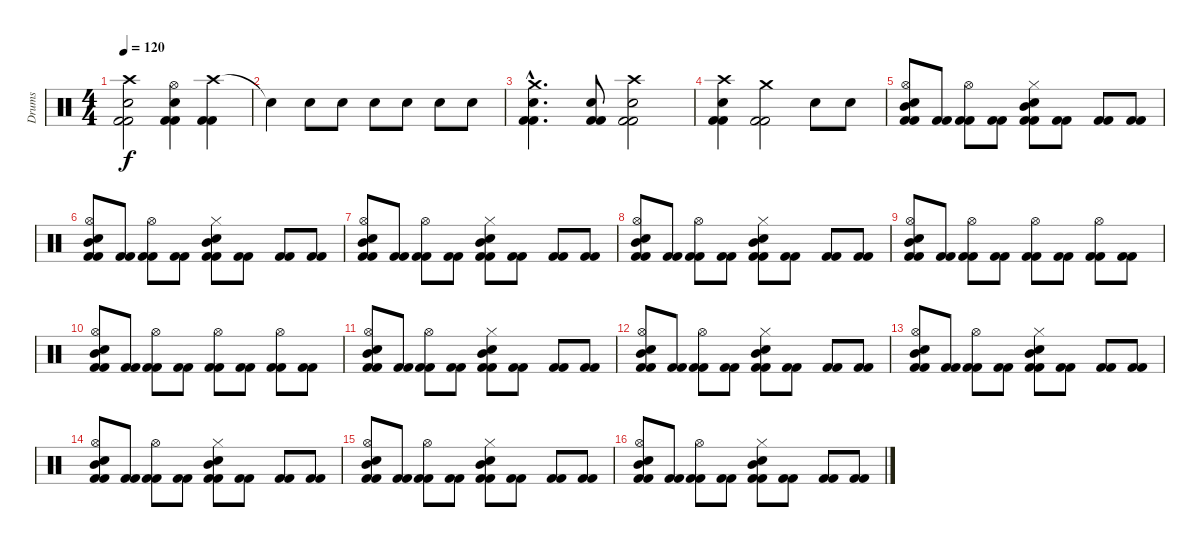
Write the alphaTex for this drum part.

\track ("Drums" "Drums") {instrument percussion}
\staff {score}
\articulation defaults
\ts (4 4)
\tempo 120
\clef neutral
\ks c
("Crash high (hit)" "Snare (hit) 2" "Kick (hit) 2" "Kick (hit) 2").2{dy f} ("Hi-Hat (open)" "Snare (hit) 2" "Kick (hit) 2" "Kick (hit) 2").4 ("Crash high (hit)" "Kick (hit) 2" "Kick (hit) 2").4 |
"Snare (hit)"{t}.4 "Snare (hit) 2".8 "Snare (hit) 2".8 "Snare (hit) 2".8 "Snare (hit) 2".8 "Snare (hit) 2".8 "Snare (hit) 2".8 |
("Crash medium (hit)"{hac} "Snare (hit) 2"{hac} "Kick (hit) 2"{hac} "Kick (hit) 2"{hac}).4{d} ("Electric Snare (hit)" "Kick (hit) 2" "Kick (hit) 2").8 ("Crash high (hit)" "Snare (hit) 2" "Kick (hit) 2" "Kick (hit) 2").2 |
("Crash high (hit)" "Snare (hit) 2" "Kick (hit) 2" "Kick (hit) 2").4 ("Crash medium (hit)" "Kick (hit) 2" "Kick (hit) 2").2 "Snare (hit) 2".8 "Snare (hit) 2".8 |
("Hi-Hat (open)" "Mid Tom (hit)" "Snare (hit) 2" "Kick (hit) 2" "Kick (hit) 2").8 ("Kick (hit) 2" "Kick (hit) 2").8 ("Hi-Hat (open)" "Kick (hit) 2" "Kick (hit) 2").8 ("Kick (hit) 2" "Kick (hit) 2").8 ("Hi-Hat (closed)" "Mid Tom (hit)" "Snare (hit) 2" "Kick (hit) 2" "Kick (hit) 2").8 ("Kick (hit) 2" "Kick (hit) 2").8 ("Kick (hit) 2" "Kick (hit) 2").8 ("Kick (hit) 2" "Kick (hit) 2").8 |
("Hi-Hat (open)" "Mid Tom (hit)" "Snare (hit) 2" "Kick (hit) 2" "Kick (hit) 2").8 ("Kick (hit) 2" "Kick (hit) 2").8 ("Hi-Hat (open)" "Kick (hit) 2" "Kick (hit) 2").8 ("Kick (hit) 2" "Kick (hit) 2").8 ("Hi-Hat (closed)" "Mid Tom (hit)" "Snare (hit) 2" "Kick (hit) 2" "Kick (hit) 2").8 ("Kick (hit) 2" "Kick (hit) 2").8 ("Kick (hit) 2" "Kick (hit) 2").8 ("Kick (hit) 2" "Kick (hit) 2").8 |
("Hi-Hat (open)" "Mid Tom (hit)" "Snare (hit) 2" "Kick (hit) 2" "Kick (hit) 2").8 ("Kick (hit) 2" "Kick (hit) 2").8 ("Hi-Hat (open)" "Kick (hit) 2" "Kick (hit) 2").8 ("Kick (hit) 2" "Kick (hit) 2").8 ("Hi-Hat (closed)" "Mid Tom (hit)" "Snare (hit) 2" "Kick (hit) 2" "Kick (hit) 2").8 ("Kick (hit) 2" "Kick (hit) 2").8 ("Kick (hit) 2" "Kick (hit) 2").8 ("Kick (hit) 2" "Kick (hit) 2").8 |
("Hi-Hat (open)" "Mid Tom (hit)" "Snare (hit) 2" "Kick (hit) 2" "Kick (hit) 2").8 ("Kick (hit) 2" "Kick (hit) 2").8 ("Hi-Hat (open)" "Kick (hit) 2" "Kick (hit) 2").8 ("Kick (hit) 2" "Kick (hit) 2").8 ("Hi-Hat (closed)" "Mid Tom (hit)" "Snare (hit) 2" "Kick (hit) 2" "Kick (hit) 2").8 ("Kick (hit) 2" "Kick (hit) 2").8 ("Kick (hit) 2" "Kick (hit) 2").8 ("Kick (hit) 2" "Kick (hit) 2").8 |
("Hi-Hat (open)" "Mid Tom (hit)" "Snare (hit) 2" "Kick (hit) 2" "Kick (hit) 2").8 ("Kick (hit) 2" "Kick (hit) 2").8 ("Hi-Hat (open)" "Kick (hit) 2" "Kick (hit) 2").8 ("Kick (hit) 2" "Kick (hit) 2").8 ("Hi-Hat (open)" "Kick (hit) 2" "Kick (hit) 2").8 ("Kick (hit) 2" "Kick (hit) 2").8 ("Hi-Hat (open)" "Kick (hit) 2" "Kick (hit) 2").8 ("Kick (hit) 2" "Kick (hit) 2").8 |
("Hi-Hat (open)" "Mid Tom (hit)" "Snare (hit) 2" "Kick (hit) 2" "Kick (hit) 2").8 ("Kick (hit) 2" "Kick (hit) 2").8 ("Hi-Hat (open)" "Kick (hit) 2" "Kick (hit) 2").8 ("Kick (hit) 2" "Kick (hit) 2").8 ("Hi-Hat (open)" "Kick (hit) 2" "Kick (hit) 2").8 ("Kick (hit) 2" "Kick (hit) 2").8 ("Hi-Hat (open)" "Kick (hit) 2" "Kick (hit) 2").8 ("Kick (hit) 2" "Kick (hit) 2").8 |
("Hi-Hat (open)" "Mid Tom (hit)" "Snare (hit) 2" "Kick (hit) 2" "Kick (hit) 2").8 ("Kick (hit) 2" "Kick (hit) 2").8 ("Hi-Hat (open)" "Kick (hit) 2" "Kick (hit) 2").8 ("Kick (hit) 2" "Kick (hit) 2").8 ("Hi-Hat (closed)" "Mid Tom (hit)" "Snare (hit) 2" "Kick (hit) 2" "Kick (hit) 2").8 ("Kick (hit) 2" "Kick (hit) 2").8 ("Kick (hit) 2" "Kick (hit) 2").8 ("Kick (hit) 2" "Kick (hit) 2").8 |
("Hi-Hat (open)" "Mid Tom (hit)" "Snare (hit) 2" "Kick (hit) 2" "Kick (hit) 2").8 ("Kick (hit) 2" "Kick (hit) 2").8 ("Hi-Hat (open)" "Kick (hit) 2" "Kick (hit) 2").8 ("Kick (hit) 2" "Kick (hit) 2").8 ("Hi-Hat (closed)" "Mid Tom (hit)" "Snare (hit) 2" "Kick (hit) 2" "Kick (hit) 2").8 ("Kick (hit) 2" "Kick (hit) 2").8 ("Kick (hit) 2" "Kick (hit) 2").8 ("Kick (hit) 2" "Kick (hit) 2").8 |
("Hi-Hat (open)" "Mid Tom (hit)" "Snare (hit) 2" "Kick (hit) 2" "Kick (hit) 2").8 ("Kick (hit) 2" "Kick (hit) 2").8 ("Hi-Hat (open)" "Kick (hit) 2" "Kick (hit) 2").8 ("Kick (hit) 2" "Kick (hit) 2").8 ("Hi-Hat (closed)" "Mid Tom (hit)" "Snare (hit) 2" "Kick (hit) 2" "Kick (hit) 2").8 ("Kick (hit) 2" "Kick (hit) 2").8 ("Kick (hit) 2" "Kick (hit) 2").8 ("Kick (hit) 2" "Kick (hit) 2").8 |
("Hi-Hat (open)" "Mid Tom (hit)" "Snare (hit) 2" "Kick (hit) 2" "Kick (hit) 2").8 ("Kick (hit) 2" "Kick (hit) 2").8 ("Hi-Hat (open)" "Kick (hit) 2" "Kick (hit) 2").8 ("Kick (hit) 2" "Kick (hit) 2").8 ("Hi-Hat (closed)" "Mid Tom (hit)" "Snare (hit) 2" "Kick (hit) 2" "Kick (hit) 2").8 ("Kick (hit) 2" "Kick (hit) 2").8 ("Kick (hit) 2" "Kick (hit) 2").8 ("Kick (hit) 2" "Kick (hit) 2").8 |
("Hi-Hat (open)" "Mid Tom (hit)" "Snare (hit) 2" "Kick (hit) 2" "Kick (hit) 2").8 ("Kick (hit) 2" "Kick (hit) 2").8 ("Hi-Hat (open)" "Kick (hit) 2" "Kick (hit) 2").8 ("Kick (hit) 2" "Kick (hit) 2").8 ("Hi-Hat (closed)" "Mid Tom (hit)" "Snare (hit) 2" "Kick (hit) 2" "Kick (hit) 2").8 ("Kick (hit) 2" "Kick (hit) 2").8 ("Kick (hit) 2" "Kick (hit) 2").8 ("Kick (hit) 2" "Kick (hit) 2").8 |
("Hi-Hat (open)" "Mid Tom (hit)" "Snare (hit) 2" "Kick (hit) 2" "Kick (hit) 2").8 ("Kick (hit) 2" "Kick (hit) 2").8 ("Hi-Hat (open)" "Kick (hit) 2" "Kick (hit) 2").8 ("Kick (hit) 2" "Kick (hit) 2").8 ("Hi-Hat (closed)" "Mid Tom (hit)" "Snare (hit) 2" "Kick (hit) 2" "Kick (hit) 2").8 ("Kick (hit) 2" "Kick (hit) 2").8 ("Kick (hit) 2" "Kick (hit) 2").8 ("Kick (hit) 2" "Kick (hit) 2").8
